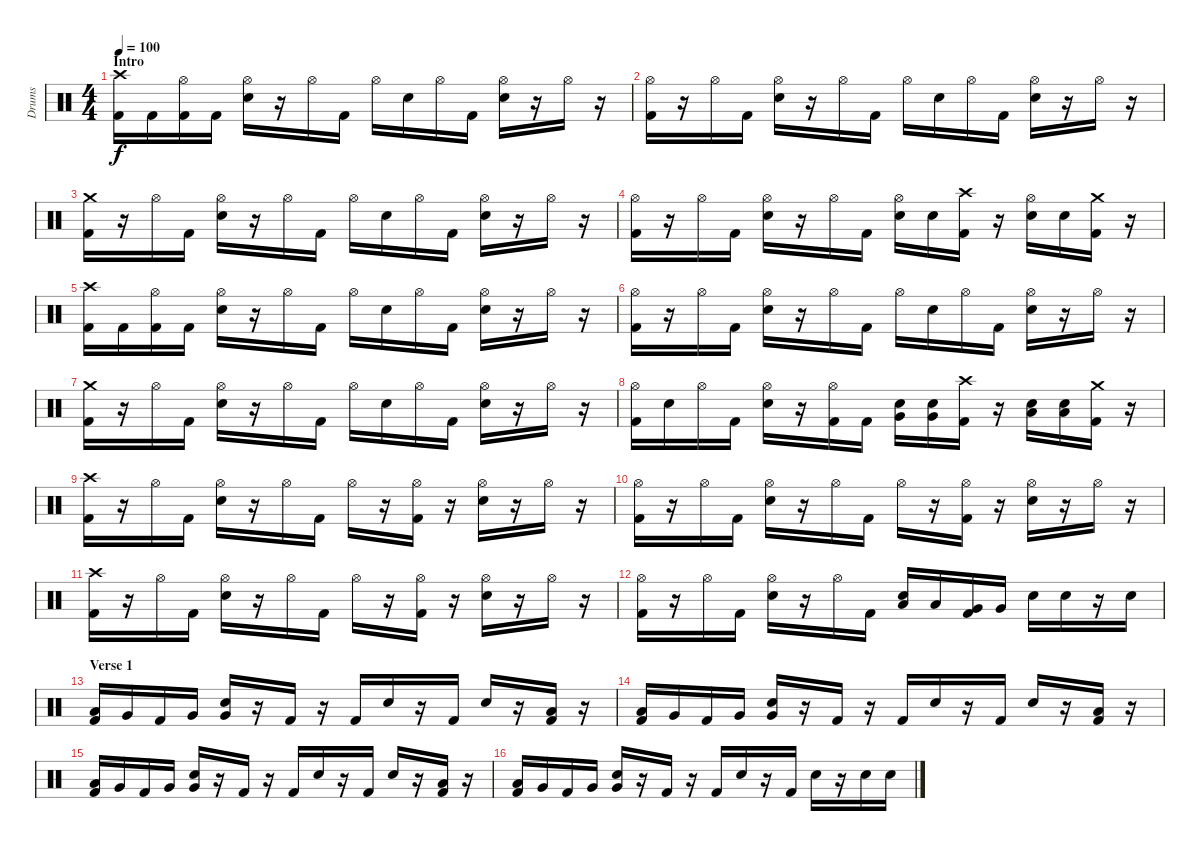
\track ("Drums" "Drums") {instrument percussion}
\staff {score}
\articulation defaults
\ts (4 4)
\section ("" "Intro")
\tempo 100
\clef neutral
\ks c
("Crash high (hit)" "Kick (hit) 2").16{dy f} "Kick (hit) 2".16 ("Hi-Hat (open)" "Kick (hit) 2").16 "Kick (hit) 2".16 ("Hi-Hat (open)" "Electric Snare (hit)").16 r.16 "Hi-Hat (open)".16 "Kick (hit) 2".16 "Hi-Hat (open)".16 "Electric Snare (hit)".16 "Hi-Hat (open)".16 "Kick (hit) 2".16 ("Hi-Hat (open)" "Electric Snare (hit)").16 r.16 "Hi-Hat (open)".16 r.16 |
("Hi-Hat (open)" "Kick (hit) 2").16 r.16 "Hi-Hat (open)".16 "Kick (hit) 2".16 ("Hi-Hat (open)" "Electric Snare (hit)").16 r.16 "Hi-Hat (open)".16 "Kick (hit) 2".16 "Hi-Hat (open)".16 "Electric Snare (hit)".16 "Hi-Hat (open)".16 "Kick (hit) 2".16 ("Hi-Hat (open)" "Electric Snare (hit)").16 r.16 "Hi-Hat (open)".16 r.16 |
("Crash medium (hit)" "Kick (hit) 2").16 r.16 "Hi-Hat (open)".16 "Kick (hit) 2".16 ("Hi-Hat (open)" "Electric Snare (hit)").16 r.16 "Hi-Hat (open)".16 "Kick (hit) 2".16 "Hi-Hat (open)".16 "Electric Snare (hit)".16 "Hi-Hat (open)".16 "Kick (hit) 2".16 ("Hi-Hat (open)" "Electric Snare (hit)").16 r.16 "Hi-Hat (open)".16 r.16 |
("Hi-Hat (open)" "Kick (hit) 2").16 r.16 "Hi-Hat (open)".16 "Kick (hit) 2".16 ("Hi-Hat (open)" "Electric Snare (hit)").16 r.16 "Hi-Hat (open)".16 "Kick (hit) 2".16 ("Hi-Hat (open)" "Electric Snare (hit)").16 "Electric Snare (hit)".16 ("Crash high (hit)" "Kick (hit) 2").16 r.16 ("Hi-Hat (open)" "Electric Snare (hit)").16 "Electric Snare (hit)".16 ("Crash medium (hit)" "Kick (hit) 2").16 r.16 |
("Crash high (hit)" "Kick (hit) 2").16 "Kick (hit) 2".16 ("Hi-Hat (open)" "Kick (hit) 2").16 "Kick (hit) 2".16 ("Hi-Hat (open)" "Electric Snare (hit)").16 r.16 "Hi-Hat (open)".16 "Kick (hit) 2".16 "Hi-Hat (open)".16 "Electric Snare (hit)".16 "Hi-Hat (open)".16 "Kick (hit) 2".16 ("Hi-Hat (open)" "Electric Snare (hit)").16 r.16 "Hi-Hat (open)".16 r.16 |
("Hi-Hat (open)" "Kick (hit) 2").16 r.16 "Hi-Hat (open)".16 "Kick (hit) 2".16 ("Hi-Hat (open)" "Electric Snare (hit)").16 r.16 "Hi-Hat (open)".16 "Kick (hit) 2".16 "Hi-Hat (open)".16 "Electric Snare (hit)".16 "Hi-Hat (open)".16 "Kick (hit) 2".16 ("Hi-Hat (open)" "Electric Snare (hit)").16 r.16 "Hi-Hat (open)".16 r.16 |
("Crash medium (hit)" "Kick (hit) 2").16 r.16 "Hi-Hat (open)".16 "Kick (hit) 2".16 ("Hi-Hat (open)" "Electric Snare (hit)").16 r.16 "Hi-Hat (open)".16 "Kick (hit) 2".16 "Hi-Hat (open)".16 "Electric Snare (hit)".16 "Hi-Hat (open)".16 "Kick (hit) 2".16 ("Hi-Hat (open)" "Electric Snare (hit)").16 r.16 "Hi-Hat (open)".16 r.16 |
("Hi-Hat (open)" "Kick (hit) 2").16 "Electric Snare (hit)".16 "Hi-Hat (open)".16 "Kick (hit) 2".16 ("Hi-Hat (open)" "Electric Snare (hit)").16 r.16 ("Hi-Hat (open)" "Kick (hit) 2").16 "Kick (hit) 2".16 ("Very Low Tom (hit)" "Electric Snare (hit)").16 ("Very Low Tom (hit)" "Electric Snare (hit)").16 ("Crash high (hit)" "Kick (hit) 2").16 r.16 ("Low Floor Tom (hit)" "Electric Snare (hit)").16 ("Low Floor Tom (hit)" "Electric Snare (hit)").16 ("Crash medium (hit)" "Kick (hit) 2").16 r.16 |
("Crash high (hit)" "Kick (hit) 2").16 r.16 "Hi-Hat (open)".16 "Kick (hit) 2".16 ("Hi-Hat (open)" "Electric Snare (hit)").16 r.16 "Hi-Hat (open)".16 "Kick (hit) 2".16 "Hi-Hat (open)".16 r.16 ("Hi-Hat (open)" "Kick (hit) 2").16 r.16 ("Hi-Hat (open)" "Electric Snare (hit)").16 r.16 "Hi-Hat (open)".16 r.16 |
("Hi-Hat (open)" "Kick (hit) 2").16 r.16 "Hi-Hat (open)".16 "Kick (hit) 2".16 ("Hi-Hat (open)" "Electric Snare (hit)").16 r.16 "Hi-Hat (open)".16 "Kick (hit) 2".16 "Hi-Hat (open)".16 r.16 ("Hi-Hat (open)" "Kick (hit) 2").16 r.16 ("Hi-Hat (open)" "Electric Snare (hit)").16 r.16 "Hi-Hat (open)".16 r.16 |
("Crash high (hit)" "Kick (hit) 2").16 r.16 "Hi-Hat (open)".16 "Kick (hit) 2".16 ("Hi-Hat (open)" "Electric Snare (hit)").16 r.16 "Hi-Hat (open)".16 "Kick (hit) 2".16 "Hi-Hat (open)".16 r.16 ("Hi-Hat (open)" "Kick (hit) 2").16 r.16 ("Hi-Hat (open)" "Electric Snare (hit)").16 r.16 "Hi-Hat (open)".16 r.16 |
("Hi-Hat (open)" "Kick (hit) 2").16 r.16 "Hi-Hat (open)".16 "Kick (hit) 2".16 ("Hi-Hat (open)" "Electric Snare (hit)").16 r.16 "Hi-Hat (open)".16 "Kick (hit) 2".16 ("Electric Snare (hit)" "Low Tom (hit)").16 "Low Tom (hit)".16 ("Very Low Tom (hit)" "Kick (hit) 2").16 "Very Low Tom (hit)".16 "Electric Snare (hit)".16 "Electric Snare (hit)".16 r.16 "Electric Snare (hit)".16 |
\section ("" "Verse 1")
("Low Tom (hit)" "Kick (hit) 2").16 "Very Low Tom (hit)".16 "Kick (hit) 2".16 "Very Low Tom (hit)".16 ("Very Low Tom (hit)" "Electric Snare (hit)").16 r.16 "Kick (hit) 2".16 r.16 "Kick (hit) 2".16 "Electric Snare (hit)".16 r.16 "Kick (hit) 2".16 "Electric Snare (hit)".16 r.16 ("Low Tom (hit)" "Kick (hit) 2").16 r.16 |
("Low Tom (hit)" "Kick (hit) 2").16 "Very Low Tom (hit)".16 "Kick (hit) 2".16 "Very Low Tom (hit)".16 ("Very Low Tom (hit)" "Electric Snare (hit)").16 r.16 "Kick (hit) 2".16 r.16 "Kick (hit) 2".16 "Electric Snare (hit)".16 r.16 "Kick (hit) 2".16 "Electric Snare (hit)".16 r.16 ("Low Tom (hit)" "Kick (hit) 2").16 r.16 |
("Low Tom (hit)" "Kick (hit) 2").16 "Very Low Tom (hit)".16 "Kick (hit) 2".16 "Very Low Tom (hit)".16 ("Very Low Tom (hit)" "Electric Snare (hit)").16 r.16 "Kick (hit) 2".16 r.16 "Kick (hit) 2".16 "Electric Snare (hit)".16 r.16 "Kick (hit) 2".16 "Electric Snare (hit)".16 r.16 ("Low Tom (hit)" "Kick (hit) 2").16 r.16 |
("Low Tom (hit)" "Kick (hit) 2").16 "Very Low Tom (hit)".16 "Kick (hit) 2".16 "Very Low Tom (hit)".16 ("Very Low Tom (hit)" "Electric Snare (hit)").16 r.16 "Kick (hit) 2".16 r.16 "Kick (hit) 2".16 "Electric Snare (hit)".16 r.16 "Kick (hit) 2".16 "Electric Snare (hit)".16 r.16 "Electric Snare (hit)".16 "Electric Snare (hit)".16
